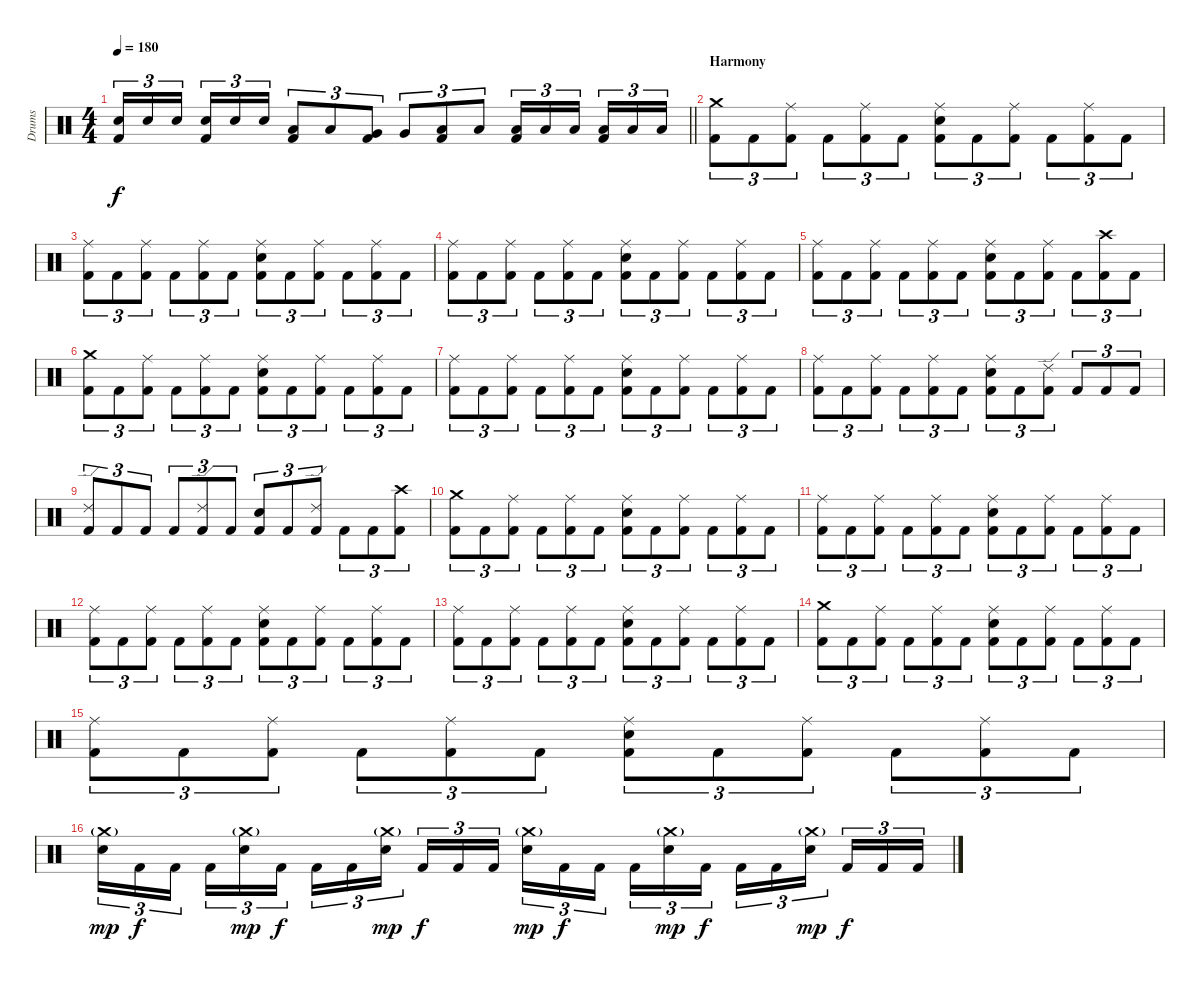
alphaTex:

\track ("Drums" "Drums") {instrument percussion}
\staff {score}
\articulation defaults
\ts (4 4)
\tempo 180
\clef neutral
\barLineRight lightlight
\ks c
("Electric Snare (hit)" "Kick (hit) 2").16{tu (3 2) dy f} "Electric Snare (hit)".16{tu (3 2)} "Electric Snare (hit)".16{tu (3 2) beam splitsecondary} ("Electric Snare (hit)" "Kick (hit) 2").16{tu (3 2)} "Electric Snare (hit)".16{tu (3 2)} "Electric Snare (hit)".16{tu (3 2)} ("Low Tom (hit)" "Kick (hit) 2").8{tu (3 2)} "Low Tom (hit)".8{tu (3 2)} ("Very Low Tom (hit)" "Kick (hit) 2").8{tu (3 2)} "Very Low Tom (hit)".8{tu (3 2)} ("Low Floor Tom (hit)" "Kick (hit) 2").8{tu (3 2)} "Low Floor Tom (hit)".8{tu (3 2)} ("Low Floor Tom (hit)" "Kick (hit) 2").16{tu (3 2)} "Low Floor Tom (hit)".16{tu (3 2)} "Low Floor Tom (hit)".16{tu (3 2) beam splitsecondary} ("Low Floor Tom (hit)" "Kick (hit) 2").16{tu (3 2)} "Low Floor Tom (hit)".16{tu (3 2)} "Low Floor Tom (hit)".16{tu (3 2)} |
\section ("" "Harmony")
("Crash medium (hit)" "Kick (hit) 2").8{tu (3 2)} "Kick (hit) 2".8{tu (3 2)} ("Ride (middle)" "Kick (hit) 2").8{tu (3 2)} "Kick (hit) 2".8{tu (3 2)} ("Ride (middle)" "Kick (hit) 2").8{tu (3 2)} "Kick (hit) 2".8{tu (3 2)} ("Ride (middle)" "Electric Snare (hit)" "Kick (hit) 2").8{tu (3 2)} "Kick (hit) 2".8{tu (3 2)} ("Ride (middle)" "Kick (hit) 2").8{tu (3 2)} "Kick (hit) 2".8{tu (3 2)} ("Ride (middle)" "Kick (hit) 2").8{tu (3 2)} "Kick (hit) 2".8{tu (3 2)} |
("Ride (middle)" "Kick (hit) 2").8{tu (3 2)} "Kick (hit) 2".8{tu (3 2)} ("Ride (middle)" "Kick (hit) 2").8{tu (3 2)} "Kick (hit) 2".8{tu (3 2)} ("Ride (middle)" "Kick (hit) 2").8{tu (3 2)} "Kick (hit) 2".8{tu (3 2)} ("Ride (middle)" "Electric Snare (hit)" "Kick (hit) 2").8{tu (3 2)} "Kick (hit) 2".8{tu (3 2)} ("Ride (middle)" "Kick (hit) 2").8{tu (3 2)} "Kick (hit) 2".8{tu (3 2)} ("Ride (middle)" "Kick (hit) 2").8{tu (3 2)} "Kick (hit) 2".8{tu (3 2)} |
("Ride (middle)" "Kick (hit) 2").8{tu (3 2)} "Kick (hit) 2".8{tu (3 2)} ("Ride (middle)" "Kick (hit) 2").8{tu (3 2)} "Kick (hit) 2".8{tu (3 2)} ("Ride (middle)" "Kick (hit) 2").8{tu (3 2)} "Kick (hit) 2".8{tu (3 2)} ("Ride (middle)" "Electric Snare (hit)" "Kick (hit) 2").8{tu (3 2)} "Kick (hit) 2".8{tu (3 2)} ("Ride (middle)" "Kick (hit) 2").8{tu (3 2)} "Kick (hit) 2".8{tu (3 2)} ("Ride (middle)" "Kick (hit) 2").8{tu (3 2)} "Kick (hit) 2".8{tu (3 2)} |
("Ride (middle)" "Kick (hit) 2").8{tu (3 2)} "Kick (hit) 2".8{tu (3 2)} ("Ride (middle)" "Kick (hit) 2").8{tu (3 2)} "Kick (hit) 2".8{tu (3 2)} ("Ride (middle)" "Kick (hit) 2").8{tu (3 2)} "Kick (hit) 2".8{tu (3 2)} ("Ride (middle)" "Electric Snare (hit)" "Kick (hit) 2").8{tu (3 2)} "Kick (hit) 2".8{tu (3 2)} ("Ride (middle)" "Kick (hit) 2").8{tu (3 2)} "Kick (hit) 2".8{tu (3 2)} ("Crash high (hit)" "Kick (hit) 2").8{tu (3 2)} "Kick (hit) 2".8{tu (3 2)} |
("Crash medium (hit)" "Kick (hit) 2").8{tu (3 2)} "Kick (hit) 2".8{tu (3 2)} ("Ride (middle)" "Kick (hit) 2").8{tu (3 2)} "Kick (hit) 2".8{tu (3 2)} ("Ride (middle)" "Kick (hit) 2").8{tu (3 2)} "Kick (hit) 2".8{tu (3 2)} ("Ride (middle)" "Electric Snare (hit)" "Kick (hit) 2").8{tu (3 2)} "Kick (hit) 2".8{tu (3 2)} ("Ride (middle)" "Kick (hit) 2").8{tu (3 2)} "Kick (hit) 2".8{tu (3 2)} ("Ride (middle)" "Kick (hit) 2").8{tu (3 2)} "Kick (hit) 2".8{tu (3 2)} |
("Ride (middle)" "Kick (hit) 2").8{tu (3 2)} "Kick (hit) 2".8{tu (3 2)} ("Ride (middle)" "Kick (hit) 2").8{tu (3 2)} "Kick (hit) 2".8{tu (3 2)} ("Ride (middle)" "Kick (hit) 2").8{tu (3 2)} "Kick (hit) 2".8{tu (3 2)} ("Ride (middle)" "Electric Snare (hit)" "Kick (hit) 2").8{tu (3 2)} "Kick (hit) 2".8{tu (3 2)} ("Ride (middle)" "Kick (hit) 2").8{tu (3 2)} "Kick (hit) 2".8{tu (3 2)} ("Ride (middle)" "Kick (hit) 2").8{tu (3 2)} "Kick (hit) 2".8{tu (3 2)} |
("Ride (middle)" "Kick (hit) 2").8{tu (3 2)} "Kick (hit) 2".8{tu (3 2)} ("Ride (middle)" "Kick (hit) 2").8{tu (3 2)} "Kick (hit) 2".8{tu (3 2)} ("Ride (middle)" "Kick (hit) 2").8{tu (3 2)} "Kick (hit) 2".8{tu (3 2)} ("Ride (middle)" "Electric Snare (hit)" "Kick (hit) 2").8{tu (3 2)} "Kick (hit) 2".8{tu (3 2)} ("Ride (edge) 2" "Kick (hit) 2").8{tu (3 2)} "Kick (hit) 2".8{tu (3 2)} "Kick (hit) 2".8{tu (3 2)} "Kick (hit) 2".8{tu (3 2)} |
("Ride (edge) 2" "Kick (hit) 2").8{tu (3 2)} "Kick (hit) 2".8{tu (3 2)} "Kick (hit) 2".8{tu (3 2)} "Kick (hit) 2".8{tu (3 2)} ("Ride (edge) 2" "Kick (hit) 2").8{tu (3 2)} "Kick (hit) 2".8{tu (3 2)} ("Electric Snare (hit)" "Kick (hit) 2").8{tu (3 2)} "Kick (hit) 2".8{tu (3 2)} ("Ride (edge) 2" "Kick (hit) 2").8{tu (3 2)} "Kick (hit) 2".8{tu (3 2)} "Kick (hit) 2".8{tu (3 2)} ("Crash high (hit)" "Kick (hit) 2").8{tu (3 2)} |
("Crash medium (hit)" "Kick (hit) 2").8{tu (3 2)} "Kick (hit) 2".8{tu (3 2)} ("Ride (middle)" "Kick (hit) 2").8{tu (3 2)} "Kick (hit) 2".8{tu (3 2)} ("Ride (middle)" "Kick (hit) 2").8{tu (3 2)} "Kick (hit) 2".8{tu (3 2)} ("Ride (middle)" "Electric Snare (hit)" "Kick (hit) 2").8{tu (3 2)} "Kick (hit) 2".8{tu (3 2)} ("Ride (middle)" "Kick (hit) 2").8{tu (3 2)} "Kick (hit) 2".8{tu (3 2)} ("Ride (middle)" "Kick (hit) 2").8{tu (3 2)} "Kick (hit) 2".8{tu (3 2)} |
("Ride (middle)" "Kick (hit) 2").8{tu (3 2)} "Kick (hit) 2".8{tu (3 2)} ("Ride (middle)" "Kick (hit) 2").8{tu (3 2)} "Kick (hit) 2".8{tu (3 2)} ("Ride (middle)" "Kick (hit) 2").8{tu (3 2)} "Kick (hit) 2".8{tu (3 2)} ("Ride (middle)" "Electric Snare (hit)" "Kick (hit) 2").8{tu (3 2)} "Kick (hit) 2".8{tu (3 2)} ("Ride (middle)" "Kick (hit) 2").8{tu (3 2)} "Kick (hit) 2".8{tu (3 2)} ("Ride (middle)" "Kick (hit) 2").8{tu (3 2)} "Kick (hit) 2".8{tu (3 2)} |
("Ride (middle)" "Kick (hit) 2").8{tu (3 2)} "Kick (hit) 2".8{tu (3 2)} ("Ride (middle)" "Kick (hit) 2").8{tu (3 2)} "Kick (hit) 2".8{tu (3 2)} ("Ride (middle)" "Kick (hit) 2").8{tu (3 2)} "Kick (hit) 2".8{tu (3 2)} ("Ride (middle)" "Electric Snare (hit)" "Kick (hit) 2").8{tu (3 2)} "Kick (hit) 2".8{tu (3 2)} ("Ride (middle)" "Kick (hit) 2").8{tu (3 2)} "Kick (hit) 2".8{tu (3 2)} ("Ride (middle)" "Kick (hit) 2").8{tu (3 2)} "Kick (hit) 2".8{tu (3 2)} |
("Ride (middle)" "Kick (hit) 2").8{tu (3 2)} "Kick (hit) 2".8{tu (3 2)} ("Ride (middle)" "Kick (hit) 2").8{tu (3 2)} "Kick (hit) 2".8{tu (3 2)} ("Ride (middle)" "Kick (hit) 2").8{tu (3 2)} "Kick (hit) 2".8{tu (3 2)} ("Ride (middle)" "Electric Snare (hit)" "Kick (hit) 2").8{tu (3 2)} "Kick (hit) 2".8{tu (3 2)} ("Ride (middle)" "Kick (hit) 2").8{tu (3 2)} "Kick (hit) 2".8{tu (3 2)} ("Ride (middle)" "Kick (hit) 2").8{tu (3 2)} "Kick (hit) 2".8{tu (3 2)} |
("Crash medium (hit)" "Kick (hit) 2").8{tu (3 2)} "Kick (hit) 2".8{tu (3 2)} ("Ride (middle)" "Kick (hit) 2").8{tu (3 2)} "Kick (hit) 2".8{tu (3 2)} ("Ride (middle)" "Kick (hit) 2").8{tu (3 2)} "Kick (hit) 2".8{tu (3 2)} ("Ride (middle)" "Electric Snare (hit)" "Kick (hit) 2").8{tu (3 2)} "Kick (hit) 2".8{tu (3 2)} ("Ride (middle)" "Kick (hit) 2").8{tu (3 2)} "Kick (hit) 2".8{tu (3 2)} ("Ride (middle)" "Kick (hit) 2").8{tu (3 2)} "Kick (hit) 2".8{tu (3 2)} |
("Ride (middle)" "Kick (hit) 2").8{tu (3 2)} "Kick (hit) 2".8{tu (3 2)} ("Ride (middle)" "Kick (hit) 2").8{tu (3 2)} "Kick (hit) 2".8{tu (3 2)} ("Ride (middle)" "Kick (hit) 2").8{tu (3 2)} "Kick (hit) 2".8{tu (3 2)} ("Ride (middle)" "Electric Snare (hit)" "Kick (hit) 2").8{tu (3 2)} "Kick (hit) 2".8{tu (3 2)} ("Ride (middle)" "Kick (hit) 2").8{tu (3 2)} "Kick (hit) 2".8{tu (3 2)} ("Ride (middle)" "Kick (hit) 2").8{tu (3 2)} "Kick (hit) 2".8{tu (3 2)} |
("Crash medium (hit)"{g} "Electric Snare (hit)").16{tu (3 2) dy mp} "Kick (hit) 2".16{tu (3 2) dy f} "Kick (hit) 2".16{tu (3 2) beam splitsecondary} "Kick (hit) 2".16{tu (3 2)} ("Crash medium (hit)"{g} "Electric Snare (hit)").16{tu (3 2) dy mp} "Kick (hit) 2".16{tu (3 2) dy f} "Kick (hit) 2".16{tu (3 2)} "Kick (hit) 2".16{tu (3 2)} ("Crash medium (hit)"{g} "Electric Snare (hit)").16{tu (3 2) dy mp beam splitsecondary} "Kick (hit) 2".16{tu (3 2) dy f} "Kick (hit) 2".16{tu (3 2)} "Kick (hit) 2".16{tu (3 2)} ("Crash medium (hit)"{g} "Electric Snare (hit)").16{tu (3 2) dy mp} "Kick (hit) 2".16{tu (3 2) dy f} "Kick (hit) 2".16{tu (3 2) beam splitsecondary} "Kick (hit) 2".16{tu (3 2)} ("Crash medium (hit)"{g} "Electric Snare (hit)").16{tu (3 2) dy mp} "Kick (hit) 2".16{tu (3 2) dy f} "Kick (hit) 2".16{tu (3 2)} "Kick (hit) 2".16{tu (3 2)} ("Crash medium (hit)"{g} "Electric Snare (hit)").16{tu (3 2) dy mp beam splitsecondary} "Kick (hit) 2".16{tu (3 2) dy f} "Kick (hit) 2".16{tu (3 2)} "Kick (hit) 2".16{tu (3 2)}
